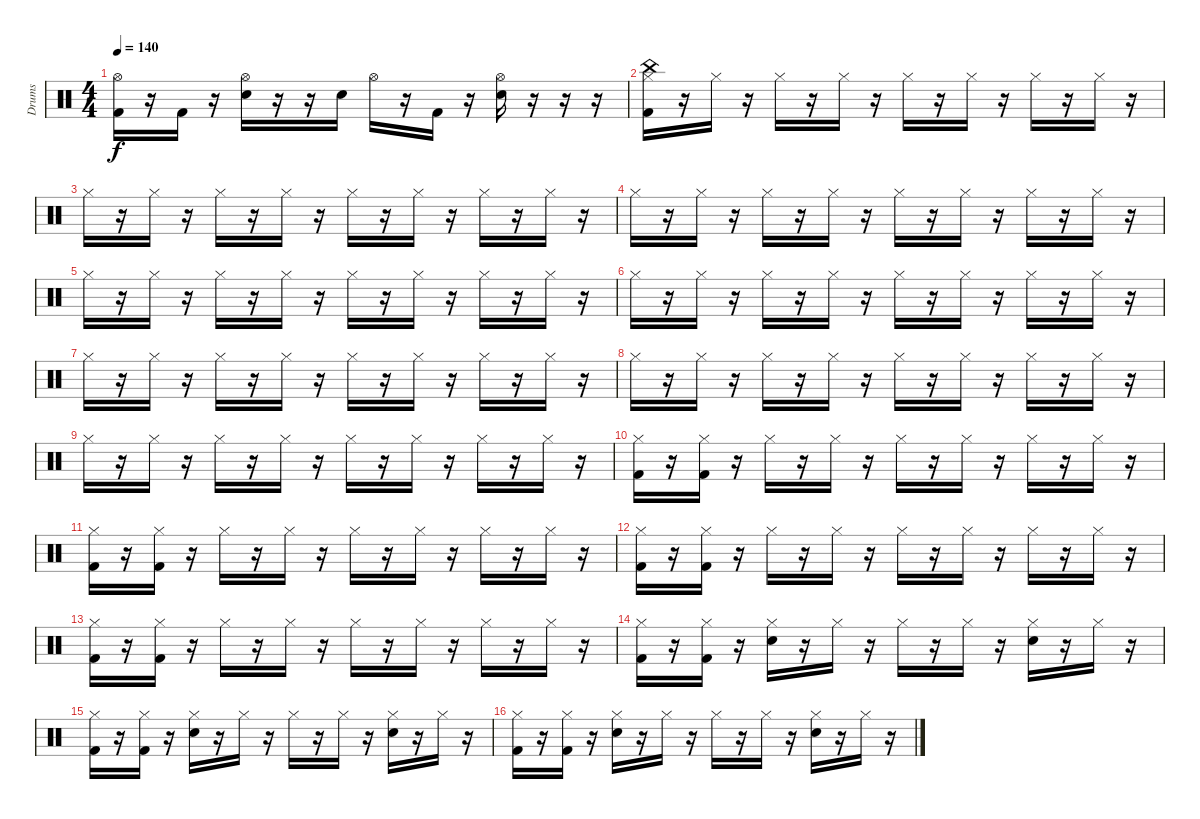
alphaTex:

\track ("Drums" "Drums") {instrument percussion}
\staff {score}
\articulation defaults
\ts (4 4)
\tempo 140
\clef neutral
\ks c
("Kick (hit) 2" "Hi-Hat (open)").16{dy f} r.16 "Kick (hit) 2".16 r.16 ("Electric Snare (hit)" "Hi-Hat (open)").16 r.16 r.16 "Electric Snare (hit)".16 "Hi-Hat (open)".16 r.16 "Kick (hit) 2".16 r.16 ("Electric Snare (hit)" "Hi-Hat (open)").16 r.16 r.16 r.16 |
("Kick (hit) 2" "China (hit)" "Hi-Hat (closed)").16 r.16 "Hi-Hat (closed)".16 r.16 "Hi-Hat (closed)".16 r.16 "Hi-Hat (closed)".16 r.16 "Hi-Hat (closed)".16 r.16 "Hi-Hat (closed)".16 r.16 "Hi-Hat (closed)".16 r.16 "Hi-Hat (closed)".16 r.16 |
"Hi-Hat (closed)".16 r.16 "Hi-Hat (closed)".16 r.16 "Hi-Hat (closed)".16 r.16 "Hi-Hat (closed)".16 r.16 "Hi-Hat (closed)".16 r.16 "Hi-Hat (closed)".16 r.16 "Hi-Hat (closed)".16 r.16 "Hi-Hat (closed)".16 r.16 |
"Hi-Hat (closed)".16 r.16 "Hi-Hat (closed)".16 r.16 "Hi-Hat (closed)".16 r.16 "Hi-Hat (closed)".16 r.16 "Hi-Hat (closed)".16 r.16 "Hi-Hat (closed)".16 r.16 "Hi-Hat (closed)".16 r.16 "Hi-Hat (closed)".16 r.16 |
"Hi-Hat (closed)".16 r.16 "Hi-Hat (closed)".16 r.16 "Hi-Hat (closed)".16 r.16 "Hi-Hat (closed)".16 r.16 "Hi-Hat (closed)".16 r.16 "Hi-Hat (closed)".16 r.16 "Hi-Hat (closed)".16 r.16 "Hi-Hat (closed)".16 r.16 |
"Hi-Hat (closed)".16 r.16 "Hi-Hat (closed)".16 r.16 "Hi-Hat (closed)".16 r.16 "Hi-Hat (closed)".16 r.16 "Hi-Hat (closed)".16 r.16 "Hi-Hat (closed)".16 r.16 "Hi-Hat (closed)".16 r.16 "Hi-Hat (closed)".16 r.16 |
"Hi-Hat (closed)".16 r.16 "Hi-Hat (closed)".16 r.16 "Hi-Hat (closed)".16 r.16 "Hi-Hat (closed)".16 r.16 "Hi-Hat (closed)".16 r.16 "Hi-Hat (closed)".16 r.16 "Hi-Hat (closed)".16 r.16 "Hi-Hat (closed)".16 r.16 |
"Hi-Hat (closed)".16 r.16 "Hi-Hat (closed)".16 r.16 "Hi-Hat (closed)".16 r.16 "Hi-Hat (closed)".16 r.16 "Hi-Hat (closed)".16 r.16 "Hi-Hat (closed)".16 r.16 "Hi-Hat (closed)".16 r.16 "Hi-Hat (closed)".16 r.16 |
"Hi-Hat (closed)".16 r.16 "Hi-Hat (closed)".16 r.16 "Hi-Hat (closed)".16 r.16 "Hi-Hat (closed)".16 r.16 "Hi-Hat (closed)".16 r.16 "Hi-Hat (closed)".16 r.16 "Hi-Hat (closed)".16 r.16 "Hi-Hat (closed)".16 r.16 |
("Kick (hit) 2" "Hi-Hat (closed)").16 r.16 ("Kick (hit) 2" "Hi-Hat (closed)").16 r.16 "Hi-Hat (closed)".16 r.16 "Hi-Hat (closed)".16 r.16 "Hi-Hat (closed)".16 r.16 "Hi-Hat (closed)".16 r.16 "Hi-Hat (closed)".16 r.16 "Hi-Hat (closed)".16 r.16 |
("Kick (hit) 2" "Hi-Hat (closed)").16 r.16 ("Kick (hit) 2" "Hi-Hat (closed)").16 r.16 "Hi-Hat (closed)".16 r.16 "Hi-Hat (closed)".16 r.16 "Hi-Hat (closed)".16 r.16 "Hi-Hat (closed)".16 r.16 "Hi-Hat (closed)".16 r.16 "Hi-Hat (closed)".16 r.16 |
("Kick (hit) 2" "Hi-Hat (closed)").16 r.16 ("Kick (hit) 2" "Hi-Hat (closed)").16 r.16 "Hi-Hat (closed)".16 r.16 "Hi-Hat (closed)".16 r.16 "Hi-Hat (closed)".16 r.16 "Hi-Hat (closed)".16 r.16 "Hi-Hat (closed)".16 r.16 "Hi-Hat (closed)".16 r.16 |
("Kick (hit) 2" "Hi-Hat (closed)").16 r.16 ("Kick (hit) 2" "Hi-Hat (closed)").16 r.16 "Hi-Hat (closed)".16 r.16 "Hi-Hat (closed)".16 r.16 "Hi-Hat (closed)".16 r.16 "Hi-Hat (closed)".16 r.16 "Hi-Hat (closed)".16 r.16 "Hi-Hat (closed)".16 r.16 |
("Kick (hit) 2" "Hi-Hat (closed)").16 r.16 ("Kick (hit) 2" "Hi-Hat (closed)").16 r.16 ("Electric Snare (hit)" "Hi-Hat (closed)").16 r.16 "Hi-Hat (closed)".16 r.16 "Hi-Hat (closed)".16 r.16 "Hi-Hat (closed)".16 r.16 ("Electric Snare (hit)" "Hi-Hat (closed)").16 r.16 "Hi-Hat (closed)".16 r.16 |
("Kick (hit) 2" "Hi-Hat (closed)").16 r.16 ("Kick (hit) 2" "Hi-Hat (closed)").16 r.16 ("Electric Snare (hit)" "Hi-Hat (closed)").16 r.16 "Hi-Hat (closed)".16 r.16 "Hi-Hat (closed)".16 r.16 "Hi-Hat (closed)".16 r.16 ("Electric Snare (hit)" "Hi-Hat (closed)").16 r.16 "Hi-Hat (closed)".16 r.16 |
("Kick (hit) 2" "Hi-Hat (closed)").16 r.16 ("Kick (hit) 2" "Hi-Hat (closed)").16 r.16 ("Electric Snare (hit)" "Hi-Hat (closed)").16 r.16 "Hi-Hat (closed)".16 r.16 "Hi-Hat (closed)".16 r.16 "Hi-Hat (closed)".16 r.16 ("Electric Snare (hit)" "Hi-Hat (closed)").16 r.16 "Hi-Hat (closed)".16 r.16
